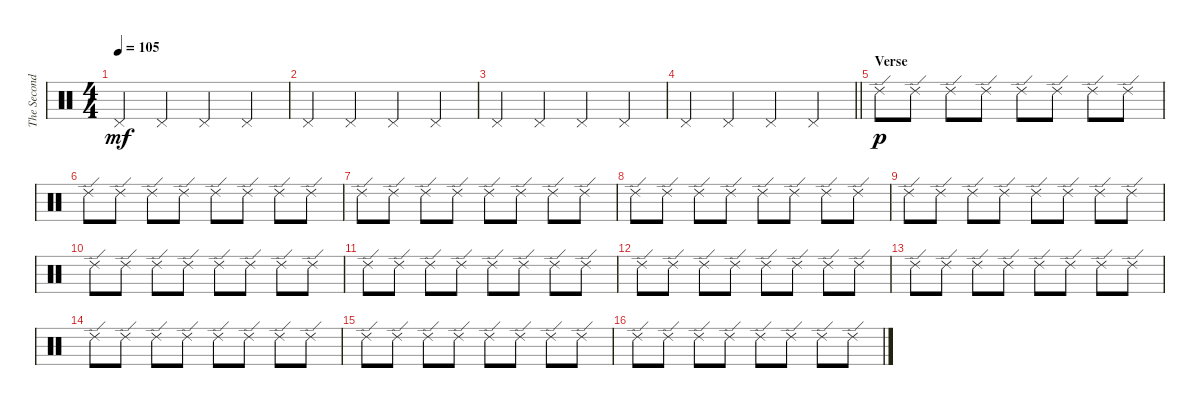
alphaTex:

\track ("The Second Drummer" "The Second") {instrument percussion}
\staff {score}
\articulation defaults
\ts (4 4)
\tempo 105
\clef neutral
\ks c "Pedal Hi-Hat (hit)".4{dy mf} "Pedal Hi-Hat (hit)".4 "Pedal Hi-Hat (hit)".4 "Pedal Hi-Hat (hit)".4
|
"Pedal Hi-Hat (hit)".4 "Pedal Hi-Hat (hit)".4 "Pedal Hi-Hat (hit)".4 "Pedal Hi-Hat (hit)".4 |
"Pedal Hi-Hat (hit)".4 "Pedal Hi-Hat (hit)".4 "Pedal Hi-Hat (hit)".4 "Pedal Hi-Hat (hit)".4 |
\barLineRight lightlight "Pedal Hi-Hat (hit)".4 "Pedal Hi-Hat (hit)".4 "Pedal Hi-Hat (hit)".4 "Pedal Hi-Hat (hit)".4
|
\section ("" "Verse")
"Ride (edge) 2".8{dy p} "Ride (edge) 2".8 "Ride (edge) 2".8 "Ride (edge) 2".8 "Ride (edge) 2".8 "Ride (edge) 2".8 "Ride (edge) 2".8 "Ride (edge) 2".8 |
"Ride (edge) 2".8 "Ride (edge) 2".8 "Ride (edge) 2".8 "Ride (edge) 2".8 "Ride (edge) 2".8 "Ride (edge) 2".8 "Ride (edge) 2".8 "Ride (edge) 2".8 |
"Ride (edge) 2".8 "Ride (edge) 2".8 "Ride (edge) 2".8 "Ride (edge) 2".8 "Ride (edge) 2".8 "Ride (edge) 2".8 "Ride (edge) 2".8 "Ride (edge) 2".8 |
"Ride (edge) 2".8 "Ride (edge) 2".8 "Ride (edge) 2".8 "Ride (edge) 2".8 "Ride (edge) 2".8 "Ride (edge) 2".8 "Ride (edge) 2".8 "Ride (edge) 2".8 |
"Ride (edge) 2".8 "Ride (edge) 2".8 "Ride (edge) 2".8 "Ride (edge) 2".8 "Ride (edge) 2".8 "Ride (edge) 2".8 "Ride (edge) 2".8 "Ride (edge) 2".8 |
"Ride (edge) 2".8 "Ride (edge) 2".8 "Ride (edge) 2".8 "Ride (edge) 2".8 "Ride (edge) 2".8 "Ride (edge) 2".8 "Ride (edge) 2".8 "Ride (edge) 2".8 |
"Ride (edge) 2".8 "Ride (edge) 2".8 "Ride (edge) 2".8 "Ride (edge) 2".8 "Ride (edge) 2".8 "Ride (edge) 2".8 "Ride (edge) 2".8 "Ride (edge) 2".8 |
"Ride (edge) 2".8 "Ride (edge) 2".8 "Ride (edge) 2".8 "Ride (edge) 2".8 "Ride (edge) 2".8 "Ride (edge) 2".8 "Ride (edge) 2".8 "Ride (edge) 2".8 |
"Ride (edge) 2".8 "Ride (edge) 2".8 "Ride (edge) 2".8 "Ride (edge) 2".8 "Ride (edge) 2".8 "Ride (edge) 2".8 "Ride (edge) 2".8 "Ride (edge) 2".8 |
"Ride (edge) 2".8 "Ride (edge) 2".8 "Ride (edge) 2".8 "Ride (edge) 2".8 "Ride (edge) 2".8 "Ride (edge) 2".8 "Ride (edge) 2".8 "Ride (edge) 2".8 |
"Ride (edge) 2".8 "Ride (edge) 2".8 "Ride (edge) 2".8 "Ride (edge) 2".8 "Ride (edge) 2".8 "Ride (edge) 2".8 "Ride (edge) 2".8 "Ride (edge) 2".8 |
"Ride (edge) 2".8 "Ride (edge) 2".8 "Ride (edge) 2".8 "Ride (edge) 2".8 "Ride (edge) 2".8 "Ride (edge) 2".8 "Ride (edge) 2".8 "Ride (edge) 2".8
